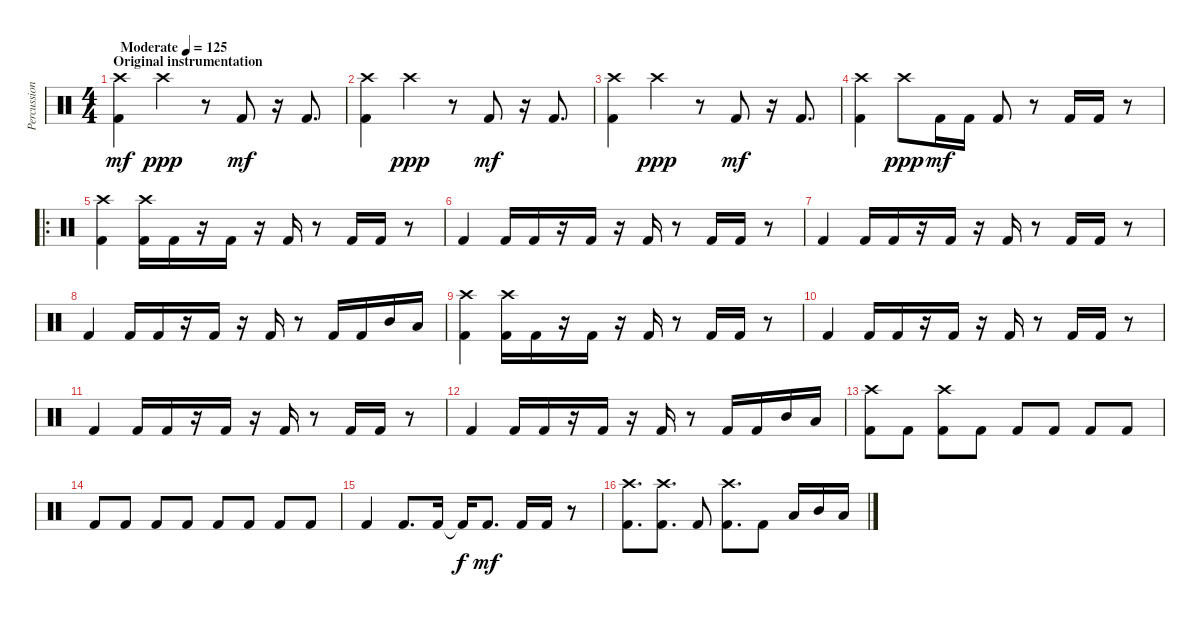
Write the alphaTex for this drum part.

\track ("Percussion" "Percussion") {instrument percussion}
\staff {score}
\articulation defaults
\ts (4 4)
\section ("" "Original instrumentation")
\tempo (125 "Moderate")
\clef neutral
\ks c
("Crash high (hit)" "Kick (hit) 2").4{dy mf} "Crash high (hit)".4{dy ppp} r.8 "Kick (hit) 2".8{dy mf} r.16 "Kick (hit) 2".8{d} |
("Crash high (hit)" "Kick (hit) 2").4 "Crash high (hit)".4{dy ppp} r.8 "Kick (hit) 2".8{dy mf} r.16 "Kick (hit) 2".8{d} |
("Crash high (hit)" "Kick (hit) 2").4 "Crash high (hit)".4{dy ppp} r.8 "Kick (hit) 2".8{dy mf} r.16 "Kick (hit) 2".8{d} |
("Crash high (hit)" "Kick (hit) 2").4 "Crash high (hit)".8{dy ppp} "Kick (hit) 2".16{dy mf} "Kick (hit) 2".16 "Kick (hit) 2".8 r.8 "Kick (hit) 2".16 "Kick (hit) 2".16 r.8 |
\ro
("Crash high (hit)" "Kick (hit) 2").4 ("Crash high (hit)" "Kick (hit) 2").16 "Kick (hit) 2".16 r.16 "Kick (hit) 2".16 r.16 "Kick (hit) 2".16 r.8 "Kick (hit) 2".16 "Kick (hit) 2".16 r.8 |
"Kick (hit) 2".4 "Kick (hit) 2".16 "Kick (hit) 2".16 r.16 "Kick (hit) 2".16 r.16 "Kick (hit) 2".16 r.8 "Kick (hit) 2".16 "Kick (hit) 2".16 r.8 |
"Kick (hit) 2".4 "Kick (hit) 2".16 "Kick (hit) 2".16 r.16 "Kick (hit) 2".16 r.16 "Kick (hit) 2".16 r.8 "Kick (hit) 2".16 "Kick (hit) 2".16 r.8 |
"Kick (hit) 2".4 "Kick (hit) 2".16 "Kick (hit) 2".16 r.16 "Kick (hit) 2".16 r.16 "Kick (hit) 2".16 r.8 "Kick (hit) 2".16 "Kick (hit) 2".16 "Mid Tom (hit)".16 "Low Tom (hit)".16 |
("Crash high (hit)" "Kick (hit) 2").4 ("Crash high (hit)" "Kick (hit) 2").16 "Kick (hit) 2".16 r.16 "Kick (hit) 2".16 r.16 "Kick (hit) 2".16 r.8 "Kick (hit) 2".16 "Kick (hit) 2".16 r.8 |
"Kick (hit) 2".4 "Kick (hit) 2".16 "Kick (hit) 2".16 r.16 "Kick (hit) 2".16 r.16 "Kick (hit) 2".16 r.8 "Kick (hit) 2".16 "Kick (hit) 2".16 r.8 |
"Kick (hit) 2".4 "Kick (hit) 2".16 "Kick (hit) 2".16 r.16 "Kick (hit) 2".16 r.16 "Kick (hit) 2".16 r.8 "Kick (hit) 2".16 "Kick (hit) 2".16 r.8 |
"Kick (hit) 2".4 "Kick (hit) 2".16 "Kick (hit) 2".16 r.16 "Kick (hit) 2".16 r.16 "Kick (hit) 2".16 r.8 "Kick (hit) 2".16 "Kick (hit) 2".16 "Mid Tom (hit)".16 "Low Tom (hit)".16 |
("Crash high (hit)" "Kick (hit) 2").8 "Kick (hit) 2".8 ("Crash high (hit)" "Kick (hit) 2").8 "Kick (hit) 2".8 "Kick (hit) 2".8 "Kick (hit) 2".8 "Kick (hit) 2".8 "Kick (hit) 2".8 |
"Kick (hit) 2".8 "Kick (hit) 2".8 "Kick (hit) 2".8 "Kick (hit) 2".8 "Kick (hit) 2".8 "Kick (hit) 2".8 "Kick (hit) 2".8 "Kick (hit) 2".8 |
"Kick (hit) 2".4 "Kick (hit) 2".8{d} "Kick (hit) 2".16 "Kick (hit) 2"{t}.16{dy f} "Kick (hit) 2".8{d dy mf} "Kick (hit) 2".16 "Kick (hit) 2".16 r.8 |
("Crash high (hit)" "Kick (hit) 2").8{d} ("Crash high (hit)" "Kick (hit) 2").8{d} "Kick (hit) 2".8 ("Crash high (hit)" "Kick (hit) 2").8{d} "Kick (hit) 2".8 "Low Tom (hit)".16 "Mid Tom (hit)".16 "Low Tom (hit)".16
